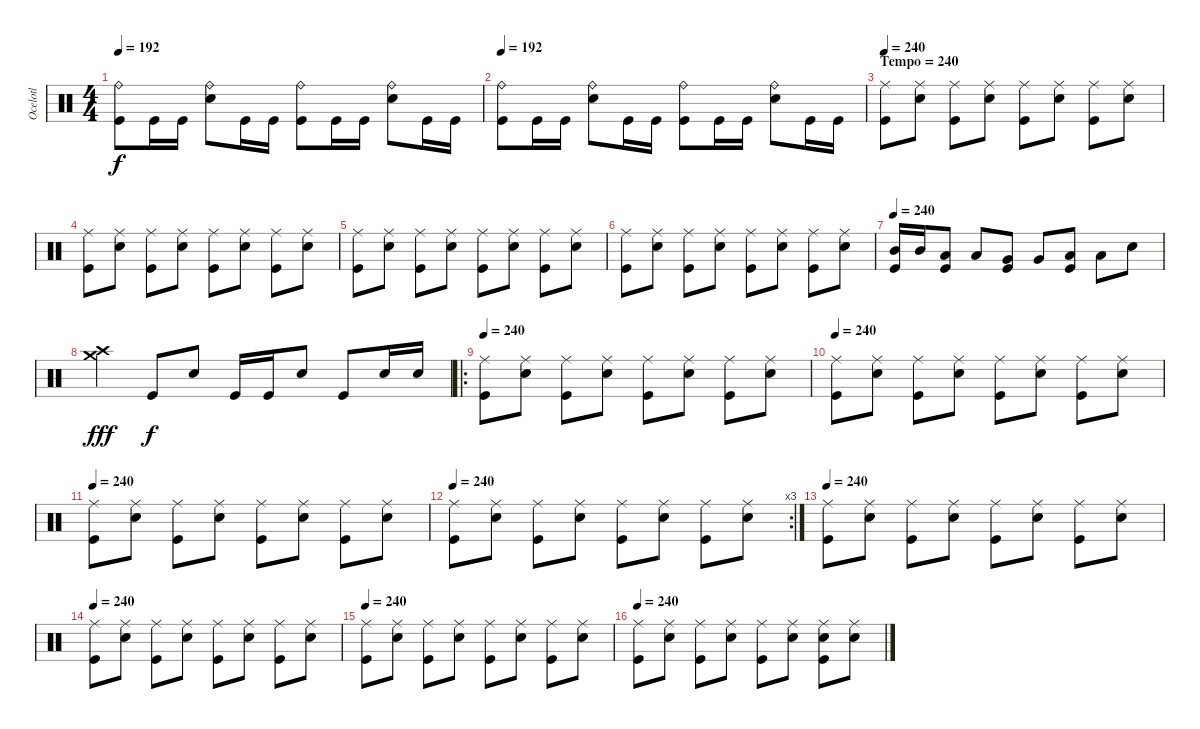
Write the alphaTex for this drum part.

\track ("Ocelotl" "Ocelotl") {instrument percussion}
\staff {score}
\articulation defaults
\ts (4 4)
\tempo 192
\clef neutral
\ks c
("Ride (bell)" "Kick (hit)").8{dy f} "Kick (hit)".16 "Kick (hit)".16 ("Ride (bell)" "Snare (hit) 2").8 "Kick (hit)".16 "Kick (hit)".16 ("Ride (bell)" "Kick (hit)").8 "Kick (hit)".16 "Kick (hit)".16 ("Ride (bell)" "Snare (hit) 2").8 "Kick (hit)".16 "Kick (hit)".16 |
\tempo 192
("Ride (bell)" "Kick (hit)").8 "Kick (hit)".16 "Kick (hit)".16 ("Ride (bell)" "Snare (hit) 2").8 "Kick (hit)".16 "Kick (hit)".16 ("Ride (bell)" "Kick (hit)").8 "Kick (hit)".16 "Kick (hit)".16 ("Ride (bell)" "Snare (hit) 2").8 "Kick (hit)".16 "Kick (hit)".16 |
\section ("" "Tempo = 240")
\tempo 240
("Ride (middle)" "Kick (hit)").8 ("Ride (middle)" "Snare (hit) 2").8 ("Ride (middle)" "Kick (hit)").8 ("Ride (middle)" "Snare (hit) 2").8 ("Ride (middle)" "Kick (hit)").8 ("Ride (middle)" "Snare (hit) 2").8 ("Ride (middle)" "Kick (hit)").8 ("Ride (middle)" "Snare (hit) 2").8 |
("Ride (middle)" "Kick (hit)").8 ("Ride (middle)" "Snare (hit) 2").8 ("Ride (middle)" "Kick (hit)").8 ("Ride (middle)" "Snare (hit) 2").8 ("Ride (middle)" "Kick (hit)").8 ("Ride (middle)" "Snare (hit) 2").8 ("Ride (middle)" "Kick (hit)").8 ("Ride (middle)" "Snare (hit) 2").8 |
("Ride (middle)" "Kick (hit)").8 ("Ride (middle)" "Snare (hit) 2").8 ("Ride (middle)" "Kick (hit)").8 ("Ride (middle)" "Snare (hit) 2").8 ("Ride (middle)" "Kick (hit)").8 ("Ride (middle)" "Snare (hit) 2").8 ("Ride (middle)" "Kick (hit)").8 ("Ride (middle)" "Snare (hit) 2").8 |
("Ride (middle)" "Kick (hit)").8 ("Ride (middle)" "Snare (hit) 2").8 ("Ride (middle)" "Kick (hit)").8 ("Ride (middle)" "Snare (hit) 2").8 ("Ride (middle)" "Kick (hit)").8 ("Ride (middle)" "Snare (hit) 2").8 ("Ride (middle)" "Kick (hit)").8 ("Ride (middle)" "Snare (hit) 2").8 |
\tempo 240
("Kick (hit)" "Mid Tom (hit)").16 "Mid Tom (hit)".16 ("Kick (hit)" "Low Tom (hit)").8 "Low Tom (hit)".8 ("Kick (hit)" "Very Low Tom (hit)").8 "Very Low Tom (hit)".8 ("Kick (hit)" "Low Floor Tom (hit)").8 "Low Floor Tom (hit)".8 "Snare (hit) 2".8 |
("Crash high (hit)" "Crash medium (hit)").4{dy fff} "Kick (hit)".8{dy f} "Snare (hit) 2".8 "Kick (hit)".16 "Kick (hit)".16 "Snare (hit) 2".8 "Kick (hit)".8 "Snare (hit) 2".16 "Snare (hit) 2".16 |
\ro
\tempo 240
("Ride (middle)" "Kick (hit)").8 ("Ride (middle)" "Snare (hit) 2").8 ("Ride (middle)" "Kick (hit)").8 ("Ride (middle)" "Snare (hit) 2").8 ("Ride (middle)" "Kick (hit)").8 ("Ride (middle)" "Snare (hit) 2").8 ("Ride (middle)" "Kick (hit)").8 ("Ride (middle)" "Snare (hit) 2").8 |
\tempo 240
("Ride (middle)" "Kick (hit)").8 ("Ride (middle)" "Snare (hit) 2").8 ("Ride (middle)" "Kick (hit)").8 ("Ride (middle)" "Snare (hit) 2").8 ("Ride (middle)" "Kick (hit)").8 ("Ride (middle)" "Snare (hit) 2").8 ("Ride (middle)" "Kick (hit)").8 ("Ride (middle)" "Snare (hit) 2").8 |
\tempo 240
("Ride (middle)" "Kick (hit)").8 ("Ride (middle)" "Snare (hit) 2").8 ("Ride (middle)" "Kick (hit)").8 ("Ride (middle)" "Snare (hit) 2").8 ("Ride (middle)" "Kick (hit)").8 ("Ride (middle)" "Snare (hit) 2").8 ("Ride (middle)" "Kick (hit)").8 ("Ride (middle)" "Snare (hit) 2").8 |
\rc 3
\tempo 240
("Ride (middle)" "Kick (hit)").8 ("Ride (middle)" "Snare (hit) 2").8 ("Ride (middle)" "Kick (hit)").8 ("Ride (middle)" "Snare (hit) 2").8 ("Ride (middle)" "Kick (hit)").8 ("Ride (middle)" "Snare (hit) 2").8 ("Ride (middle)" "Kick (hit)").8 ("Ride (middle)" "Snare (hit) 2").8 |
\tempo 240
("Ride (middle)" "Kick (hit)").8 ("Ride (middle)" "Snare (hit) 2").8 ("Ride (middle)" "Kick (hit)").8 ("Ride (middle)" "Snare (hit) 2").8 ("Ride (middle)" "Kick (hit)").8 ("Ride (middle)" "Snare (hit) 2").8 ("Ride (middle)" "Kick (hit)").8 ("Ride (middle)" "Snare (hit) 2").8 |
\tempo 240
("Ride (middle)" "Kick (hit)").8 ("Ride (middle)" "Snare (hit) 2").8 ("Ride (middle)" "Kick (hit)").8 ("Ride (middle)" "Snare (hit) 2").8 ("Ride (middle)" "Kick (hit)").8 ("Ride (middle)" "Snare (hit) 2").8 ("Ride (middle)" "Kick (hit)").8 ("Ride (middle)" "Snare (hit) 2").8 |
\tempo 240
("Ride (middle)" "Kick (hit)").8 ("Ride (middle)" "Snare (hit) 2").8 ("Ride (middle)" "Kick (hit)").8 ("Ride (middle)" "Snare (hit) 2").8 ("Ride (middle)" "Kick (hit)").8 ("Ride (middle)" "Snare (hit) 2").8 ("Ride (middle)" "Kick (hit)").8 ("Ride (middle)" "Snare (hit) 2").8 |
\tempo 240
("Ride (middle)" "Kick (hit)").8 ("Ride (middle)" "Snare (hit) 2").8 ("Ride (middle)" "Kick (hit)").8 ("Ride (middle)" "Snare (hit) 2").8 ("Ride (middle)" "Kick (hit)").8 ("Ride (middle)" "Snare (hit) 2").8 ("Ride (middle)" "Kick (hit)" "Snare (hit) 2").8 ("Ride (middle)" "Snare (hit) 2").8
